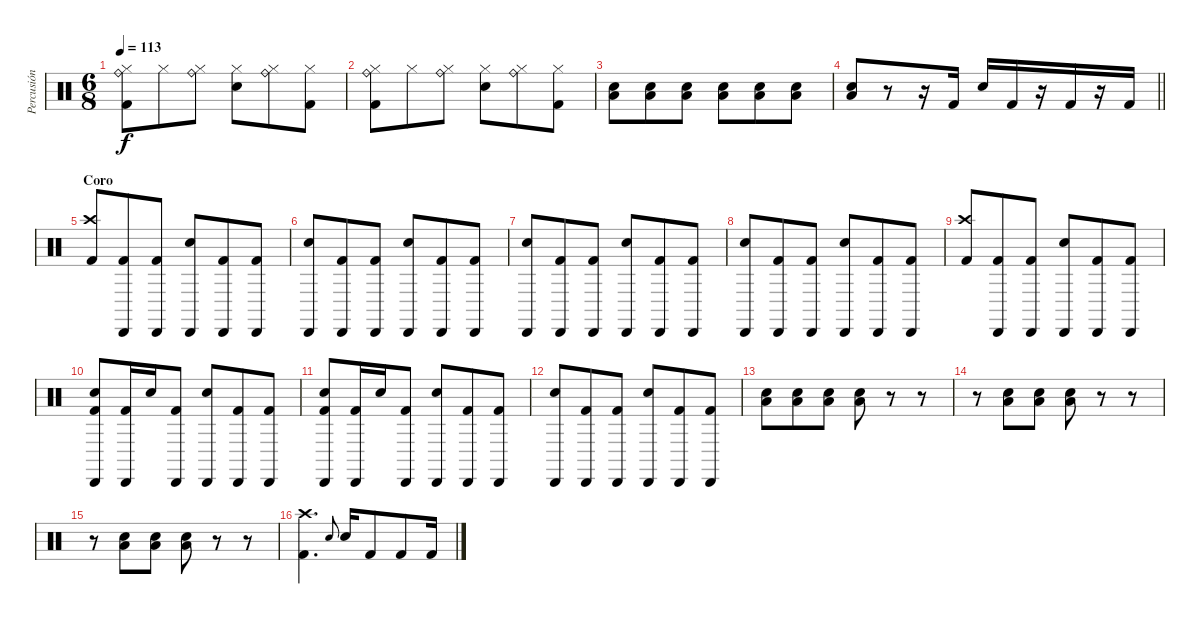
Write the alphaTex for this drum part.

\track ("Percusión" "Percusión") {instrument percussion}
\staff {score}
\articulation defaults
\ts (6 8)
\tempo 113
\clef neutral
\ks c
("Ride (bell)" "Hi-Hat (closed)" "Kick (hit) 2").8{dy f} "Hi-Hat (closed)".8 ("Ride (bell)" "Hi-Hat (closed)").8 ("Hi-Hat (closed)" "Electric Snare (hit)").8 ("Ride (bell)" "Hi-Hat (closed)").8 ("Hi-Hat (closed)" "Kick (hit) 2").8 |
("Ride (bell)" "Hi-Hat (closed)" "Kick (hit) 2").8 "Hi-Hat (closed)".8 ("Ride (bell)" "Hi-Hat (closed)").8 ("Hi-Hat (closed)" "Electric Snare (hit)").8 ("Ride (bell)" "Hi-Hat (closed)").8 ("Hi-Hat (closed)" "Kick (hit) 2").8 |
("Electric Snare (hit)" "Low Floor Tom (hit)").8 ("Electric Snare (hit)" "Low Floor Tom (hit)").8 ("Electric Snare (hit)" "Low Floor Tom (hit)").8 ("Electric Snare (hit)" "Low Floor Tom (hit)").8 ("Electric Snare (hit)" "Low Floor Tom (hit)").8 ("Electric Snare (hit)" "Low Floor Tom (hit)").8 |
\barLineRight lightlight
("Electric Snare (hit)" "Low Floor Tom (hit)").8 r.8 r.16 "Kick (hit) 2".16 "Electric Snare (hit)".16 "Kick (hit) 2".16 r.16 "Kick (hit) 2".16 r.16 "Kick (hit) 2".16 |
\section ("" "Coro")
("Crash high (hit)" "Kick (hit) 2").8 ("Cabasa (hit)" "Kick (hit) 2").8 ("Cabasa (hit)" "Kick (hit) 2").8 ("Cabasa (hit)" "Electric Snare (hit)").8 ("Cabasa (hit)" "Kick (hit) 2").8 ("Cabasa (hit)" "Kick (hit) 2").8 |
("Cabasa (hit)" "Electric Snare (hit)").8 ("Cabasa (hit)" "Kick (hit) 2").8 ("Cabasa (hit)" "Kick (hit) 2").8 ("Cabasa (hit)" "Electric Snare (hit)").8 ("Cabasa (hit)" "Kick (hit) 2").8 ("Cabasa (hit)" "Kick (hit) 2").8 |
("Cabasa (hit)" "Electric Snare (hit)").8 ("Cabasa (hit)" "Kick (hit) 2").8 ("Cabasa (hit)" "Kick (hit) 2").8 ("Cabasa (hit)" "Electric Snare (hit)").8 ("Cabasa (hit)" "Kick (hit) 2").8 ("Cabasa (hit)" "Kick (hit) 2").8 |
("Cabasa (hit)" "Electric Snare (hit)").8 ("Cabasa (hit)" "Kick (hit) 2").8 ("Cabasa (hit)" "Kick (hit) 2").8 ("Cabasa (hit)" "Electric Snare (hit)").8 ("Cabasa (hit)" "Kick (hit) 2").8 ("Cabasa (hit)" "Kick (hit) 2").8 |
("Crash high (hit)" "Kick (hit) 2").8 ("Cabasa (hit)" "Kick (hit) 2").8 ("Cabasa (hit)" "Kick (hit) 2").8 ("Cabasa (hit)" "Electric Snare (hit)").8 ("Cabasa (hit)" "Kick (hit) 2").8 ("Cabasa (hit)" "Kick (hit) 2").8 |
("Cabasa (hit)" "Electric Snare (hit)" "Kick (hit) 2").8 ("Cabasa (hit)" "Kick (hit) 2").16 "Electric Snare (hit)".16 ("Cabasa (hit)" "Kick (hit) 2").8 ("Cabasa (hit)" "Electric Snare (hit)").8 ("Cabasa (hit)" "Kick (hit) 2").8 ("Cabasa (hit)" "Kick (hit) 2").8 |
("Cabasa (hit)" "Electric Snare (hit)" "Kick (hit) 2").8 ("Cabasa (hit)" "Kick (hit) 2").16 "Electric Snare (hit)".16 ("Cabasa (hit)" "Kick (hit) 2").8 ("Cabasa (hit)" "Electric Snare (hit)").8 ("Cabasa (hit)" "Kick (hit) 2").8 ("Cabasa (hit)" "Kick (hit) 2").8 |
("Cabasa (hit)" "Electric Snare (hit)").8 ("Cabasa (hit)" "Kick (hit) 2").8 ("Cabasa (hit)" "Kick (hit) 2").8 ("Cabasa (hit)" "Electric Snare (hit)").8 ("Cabasa (hit)" "Kick (hit) 2").8 ("Cabasa (hit)" "Kick (hit) 2").8 |
("Electric Snare (hit)" "Low Floor Tom (hit)").8 ("Electric Snare (hit)" "Low Floor Tom (hit)").8 ("Electric Snare (hit)" "Low Floor Tom (hit)").8 ("Electric Snare (hit)" "Low Floor Tom (hit)").8 r.8 r.8 |
r.8 ("Electric Snare (hit)" "Low Floor Tom (hit)").8 ("Electric Snare (hit)" "Low Floor Tom (hit)").8 ("Electric Snare (hit)" "Low Floor Tom (hit)").8 r.8 r.8 |
r.8 ("Electric Snare (hit)" "Low Floor Tom (hit)").8 ("Electric Snare (hit)" "Low Floor Tom (hit)").8 ("Electric Snare (hit)" "Low Floor Tom (hit)").8 r.8 r.8 |
("Crash high (hit)" "Kick (hit) 2").4{d} "Electric Snare (hit)".8{gr onbeat} "Electric Snare (hit)".16 "Kick (hit) 2".8 "Kick (hit) 2".8 "Kick (hit) 2".16
